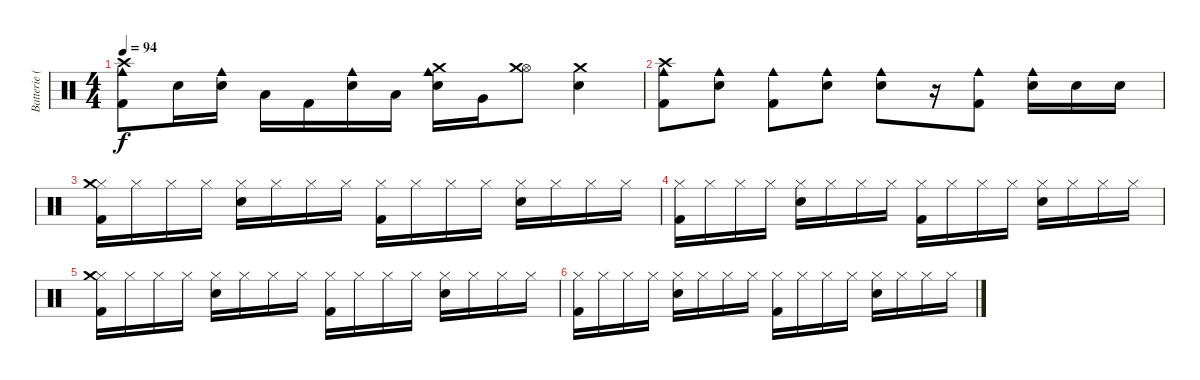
\track ("Batterie (Richard Kolinka)" "Batterie (") {instrument percussion}
\staff {score}
\articulation defaults
\ts (4 4)
\tempo 94
\clef neutral
\ks c
("Kick (hit) 2" "Cowbell medium (hit)" "Crash high (hit)").8{dy f} "Snare (hit) 2".16 ("Snare (hit) 2" "Cowbell medium (hit)").16 "Low Tom (hit)".16 "Kick (hit) 2".16 ("Snare (hit) 2" "Cowbell medium (hit)").16 "Low Tom (hit)".16 ("Snare (hit) 2" "Cowbell medium (hit)" "Crash medium (hit)").16 "Very Low Tom (hit)".16 ("Hi-Hat (open)" "Crash medium (hit)").8 ("Snare (hit) 2" "Crash medium (hit)").4 |
("Kick (hit) 2" "Cowbell medium (hit)" "Crash high (hit)").8 ("Snare (hit) 2" "Cowbell medium (hit)").8 ("Kick (hit) 2" "Cowbell medium (hit)").8 ("Snare (hit) 2" "Cowbell medium (hit)").8 ("Snare (hit) 2" "Cowbell medium (hit)").8 r.16 ("Kick (hit) 2" "Cowbell medium (hit)").8 ("Snare (hit) 2" "Cowbell medium (hit)").16 "Snare (hit) 2".16 "Snare (hit) 2".16 |
("Kick (hit) 2" "Hi-Hat (closed)" "Crash medium (hit)").16 "Hi-Hat (closed)".16 "Hi-Hat (closed)".16 "Hi-Hat (closed)".16 ("Snare (hit) 2" "Hi-Hat (closed)").16 "Hi-Hat (closed)".16 "Hi-Hat (closed)".16 "Hi-Hat (closed)".16 ("Kick (hit) 2" "Hi-Hat (closed)").16 "Hi-Hat (closed)".16 "Hi-Hat (closed)".16 "Hi-Hat (closed)".16 ("Snare (hit) 2" "Hi-Hat (closed)").16 "Hi-Hat (closed)".16 "Hi-Hat (closed)".16 "Hi-Hat (closed)".16 |
("Kick (hit) 2" "Hi-Hat (closed)").16 "Hi-Hat (closed)".16 "Hi-Hat (closed)".16 "Hi-Hat (closed)".16 ("Snare (hit) 2" "Hi-Hat (closed)").16 "Hi-Hat (closed)".16 "Hi-Hat (closed)".16 "Hi-Hat (closed)".16 ("Kick (hit) 2" "Hi-Hat (closed)").16 "Hi-Hat (closed)".16 "Hi-Hat (closed)".16 "Hi-Hat (closed)".16 ("Snare (hit) 2" "Hi-Hat (closed)").16 "Hi-Hat (closed)".16 "Hi-Hat (closed)".16 "Hi-Hat (closed)".16 |
("Kick (hit) 2" "Hi-Hat (closed)" "Crash medium (hit)").16 "Hi-Hat (closed)".16 "Hi-Hat (closed)".16 "Hi-Hat (closed)".16 ("Snare (hit) 2" "Hi-Hat (closed)").16 "Hi-Hat (closed)".16 "Hi-Hat (closed)".16 "Hi-Hat (closed)".16 ("Kick (hit) 2" "Hi-Hat (closed)").16 "Hi-Hat (closed)".16 "Hi-Hat (closed)".16 "Hi-Hat (closed)".16 ("Snare (hit) 2" "Hi-Hat (closed)").16 "Hi-Hat (closed)".16 "Hi-Hat (closed)".16 "Hi-Hat (closed)".16 |
("Kick (hit) 2" "Hi-Hat (closed)").16 "Hi-Hat (closed)".16 "Hi-Hat (closed)".16 "Hi-Hat (closed)".16 ("Snare (hit) 2" "Hi-Hat (closed)").16 "Hi-Hat (closed)".16 "Hi-Hat (closed)".16 "Hi-Hat (closed)".16 ("Kick (hit) 2" "Hi-Hat (closed)").16 "Hi-Hat (closed)".16 "Hi-Hat (closed)".16 "Hi-Hat (closed)".16 ("Snare (hit) 2" "Hi-Hat (closed)").16 "Hi-Hat (closed)".16 "Hi-Hat (closed)".16 "Hi-Hat (closed)".16
